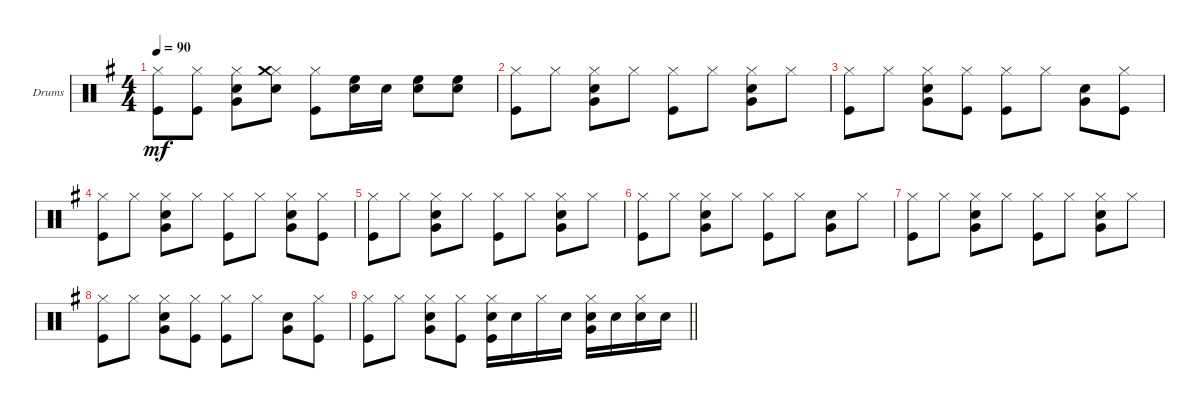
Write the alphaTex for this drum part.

\defaultSystemsLayout 4
\bracketExtendMode groupsimilarinstruments
\firstSystemTrackNameOrientation horizontal
\otherSystemsTrackNameOrientation horizontal
\track ("Drumkit" "Drums") {instrument percussion}
\staff {score}
\articulation defaults
\ts (4 4)
\tempo 90
\clef neutral
\scale
0.333333
\ks g
("Kick (hit)" "Hi-Hat (closed)").8{dy mf} ("Kick (hit)" "Hi-Hat (closed)").8 ("Snare (hit) 2" "Hi-Hat (closed)" "Very Low Tom (hit)").8 ("Snare (hit) 2" "Hi-Hat (closed)" "Crash medium (hit)").8 ("Kick (hit)" "Hi-Hat (closed)").8 ("Snare (hit) 2" "High Floor Tom (hit)").16 "Snare (hit) 2".16 ("Snare (hit) 2" "High Floor Tom (hit)").8 ("Snare (hit) 2" "High Floor Tom (hit)").8 |
\scale
0.333333 ("Kick (hit)" "Hi-Hat (closed)").8 "Hi-Hat (closed)".8 ("Snare (hit) 2" "Hi-Hat (closed)" "Very Low Tom (hit)").8 "Hi-Hat (closed)".8 ("Kick (hit)" "Hi-Hat (closed)").8 "Hi-Hat (closed)".8 ("Snare (hit) 2" "Hi-Hat (closed)" "Very Low Tom (hit)").8 "Hi-Hat (closed)".8 |
\scale
0.333333 ("Kick (hit)" "Hi-Hat (closed)").8 "Hi-Hat (closed)".8 ("Snare (hit) 2" "Hi-Hat (closed)" "Very Low Tom (hit)").8 ("Kick (hit)" "Hi-Hat (closed)").8 ("Kick (hit)" "Hi-Hat (closed)").8 "Hi-Hat (closed)".8 ("Snare (hit) 2" "Very Low Tom (hit)").8 ("Kick (hit)" "Hi-Hat (closed)").8 |
\scale
0.333333 ("Kick (hit)" "Hi-Hat (closed)").8 "Hi-Hat (closed)".8 ("Snare (hit) 2" "Hi-Hat (closed)" "Very Low Tom (hit)").8 "Hi-Hat (closed)".8 ("Kick (hit)" "Hi-Hat (closed)").8 "Hi-Hat (closed)".8 ("Snare (hit) 2" "Hi-Hat (closed)" "Very Low Tom (hit)").8 ("Kick (hit)" "Hi-Hat (closed)").8 |
\scale
0.333333 ("Kick (hit)" "Hi-Hat (closed)").8 "Hi-Hat (closed)".8 ("Snare (hit) 2" "Hi-Hat (closed)" "Very Low Tom (hit)").8 "Hi-Hat (closed)".8 ("Kick (hit)" "Hi-Hat (closed)").8 "Hi-Hat (closed)".8 ("Snare (hit) 2" "Hi-Hat (closed)" "Very Low Tom (hit)").8 "Hi-Hat (closed)".8 |
\scale
0.333333 ("Kick (hit)" "Hi-Hat (closed)").8 "Hi-Hat (closed)".8 ("Snare (hit) 2" "Hi-Hat (closed)" "Very Low Tom (hit)").8 "Hi-Hat (closed)".8 ("Kick (hit)" "Hi-Hat (closed)").8 "Hi-Hat (closed)".8 ("Snare (hit) 2" "Very Low Tom (hit)").8 "Hi-Hat (closed)".8 |
\scale
0.333333 ("Kick (hit)" "Hi-Hat (closed)").8 "Hi-Hat (closed)".8 ("Snare (hit) 2" "Hi-Hat (closed)" "Very Low Tom (hit)").8 "Hi-Hat (closed)".8 ("Kick (hit)" "Hi-Hat (closed)").8 "Hi-Hat (closed)".8 ("Snare (hit) 2" "Hi-Hat (closed)" "Very Low Tom (hit)").8 "Hi-Hat (closed)".8 |
\scale
0.333333 ("Kick (hit)" "Hi-Hat (closed)").8 "Hi-Hat (closed)".8 ("Snare (hit) 2" "Hi-Hat (closed)" "Very Low Tom (hit)").8 ("Kick (hit)" "Hi-Hat (closed)").8 ("Kick (hit)" "Hi-Hat (closed)").8 "Hi-Hat (closed)".8 ("Snare (hit) 2" "Very Low Tom (hit)").8 ("Kick (hit)" "Hi-Hat (closed)").8 |
\scale
0.333333
\barLineRight lightlight
("Kick (hit)" "Hi-Hat (closed)").8 "Hi-Hat (closed)".8 ("Snare (hit) 2" "Hi-Hat (closed)" "Very Low Tom (hit)").8 ("Kick (hit)" "Hi-Hat (closed)").8 ("Kick (hit)" "Snare (hit) 2" "Hi-Hat (closed)").16 "Snare (hit) 2".16 "Hi-Hat (closed)".16 "Snare (hit) 2".16 ("Snare (hit) 2" "Hi-Hat (closed)" "Very Low Tom (hit)").16 "Snare (hit) 2".16 ("Snare (hit) 2" "Hi-Hat (closed)").16 "Snare (hit) 2".16
